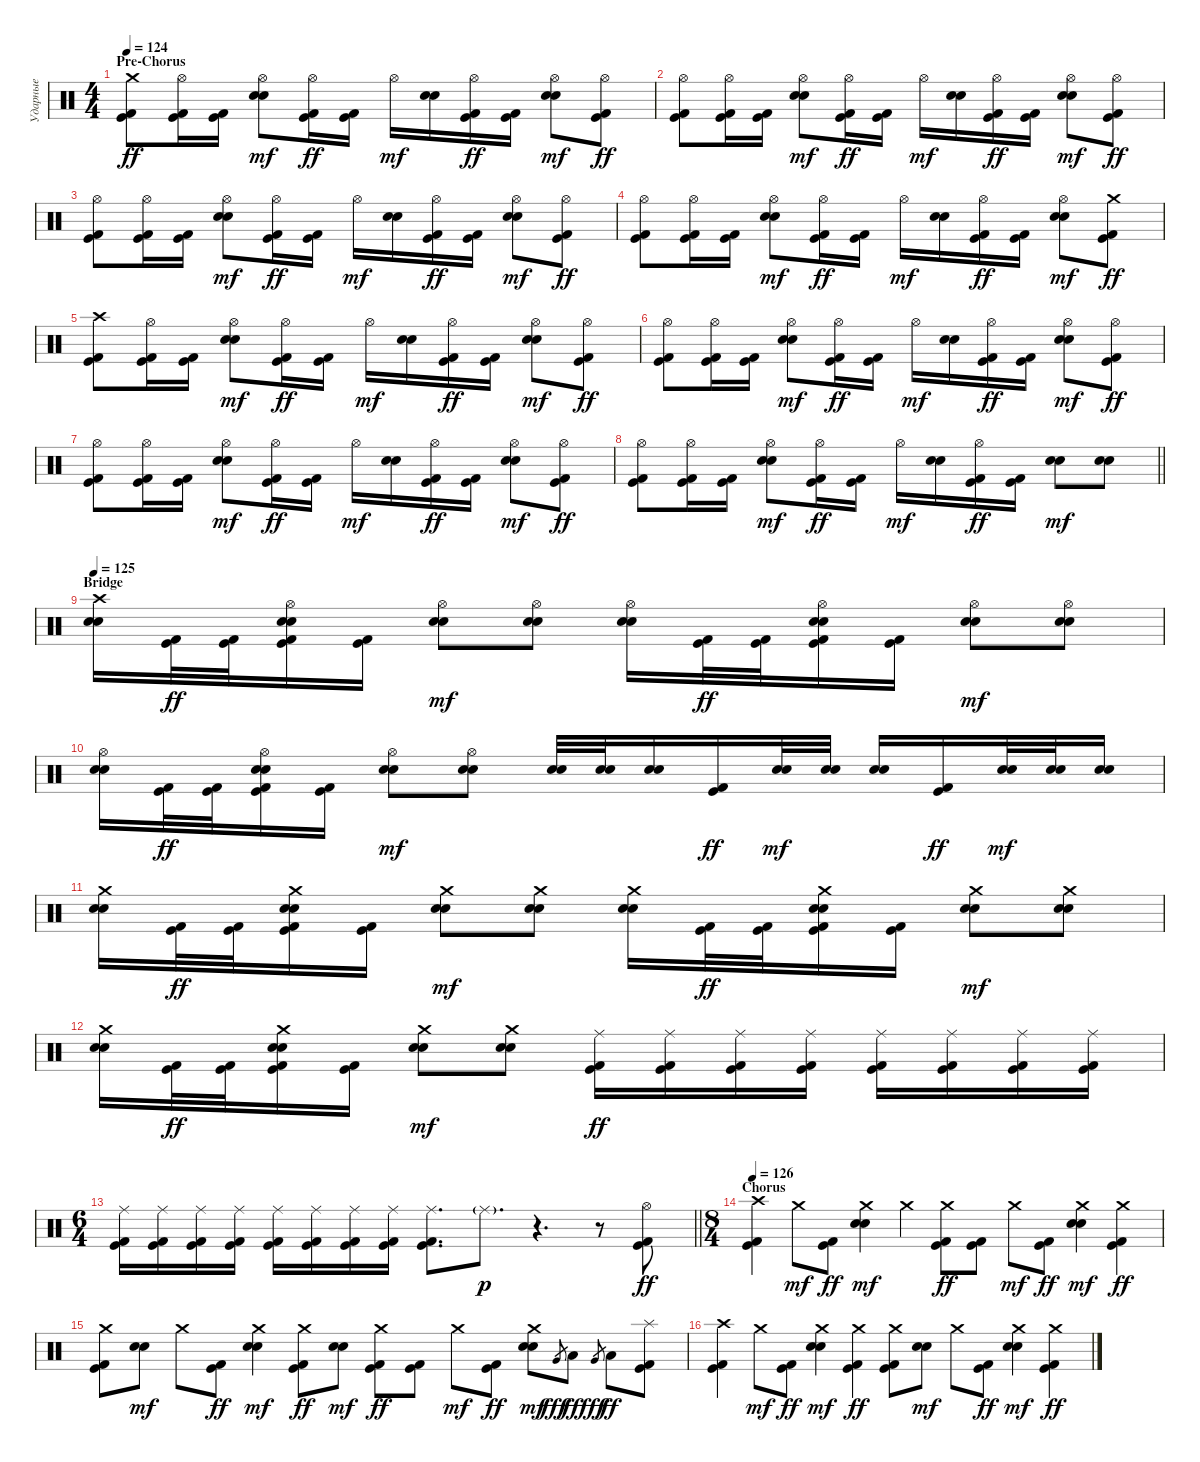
\track ("Ударные" "Ударные") {instrument percussion}
\staff {score}
\articulation defaults
\ts (4 4)
\section ("" "Pre-Chorus")
\tempo 124
\clef neutral
\ks c
("Crash medium (hit)" "Kick (hit) 2" "Kick (hit)").8{dy ff} ("Hi-Hat (open)" "Kick (hit) 2" "Kick (hit)").16 ("Kick (hit) 2" "Kick (hit)").16 ("Hi-Hat (open)" "Snare (hit) 2" "Electric Snare (hit)").8{dy mf} ("Hi-Hat (open)" "Kick (hit) 2" "Kick (hit)").16{dy ff} ("Kick (hit) 2" "Kick (hit)").16 "Hi-Hat (open)".16{dy mf} ("Snare (hit) 2" "Electric Snare (hit)").16 ("Hi-Hat (open)" "Kick (hit) 2" "Kick (hit)").16{dy ff} ("Kick (hit) 2" "Kick (hit)").16 ("Hi-Hat (open)" "Snare (hit) 2" "Electric Snare (hit)").8{dy mf} ("Hi-Hat (open)" "Kick (hit) 2" "Kick (hit)").8{dy ff} |
("Hi-Hat (open)" "Kick (hit) 2" "Kick (hit)").8 ("Hi-Hat (open)" "Kick (hit) 2" "Kick (hit)").16 ("Kick (hit) 2" "Kick (hit)").16 ("Hi-Hat (open)" "Snare (hit) 2" "Electric Snare (hit)").8{dy mf} ("Hi-Hat (open)" "Kick (hit) 2" "Kick (hit)").16{dy ff} ("Kick (hit) 2" "Kick (hit)").16 "Hi-Hat (open)".16{dy mf} ("Snare (hit) 2" "Electric Snare (hit)").16 ("Hi-Hat (open)" "Kick (hit) 2" "Kick (hit)").16{dy ff} ("Kick (hit) 2" "Kick (hit)").16 ("Hi-Hat (open)" "Snare (hit) 2" "Electric Snare (hit)").8{dy mf} ("Hi-Hat (open)" "Kick (hit) 2" "Kick (hit)").8{dy ff} |
("Hi-Hat (open)" "Kick (hit) 2" "Kick (hit)").8 ("Hi-Hat (open)" "Kick (hit) 2" "Kick (hit)").16 ("Kick (hit) 2" "Kick (hit)").16 ("Hi-Hat (open)" "Snare (hit) 2" "Electric Snare (hit)").8{dy mf} ("Hi-Hat (open)" "Kick (hit) 2" "Kick (hit)").16{dy ff} ("Kick (hit) 2" "Kick (hit)").16 "Hi-Hat (open)".16{dy mf} ("Snare (hit) 2" "Electric Snare (hit)").16 ("Hi-Hat (open)" "Kick (hit) 2" "Kick (hit)").16{dy ff} ("Kick (hit) 2" "Kick (hit)").16 ("Hi-Hat (open)" "Snare (hit) 2" "Electric Snare (hit)").8{dy mf} ("Hi-Hat (open)" "Kick (hit) 2" "Kick (hit)").8{dy ff} |
("Hi-Hat (open)" "Kick (hit) 2" "Kick (hit)").8 ("Hi-Hat (open)" "Kick (hit) 2" "Kick (hit)").16 ("Kick (hit) 2" "Kick (hit)").16 ("Hi-Hat (open)" "Snare (hit) 2" "Electric Snare (hit)").8{dy mf} ("Hi-Hat (open)" "Kick (hit) 2" "Kick (hit)").16{dy ff} ("Kick (hit) 2" "Kick (hit)").16 "Hi-Hat (open)".16{dy mf} ("Snare (hit) 2" "Electric Snare (hit)").16 ("Hi-Hat (open)" "Kick (hit) 2" "Kick (hit)").16{dy ff} ("Kick (hit) 2" "Kick (hit)").16 ("Hi-Hat (open)" "Snare (hit) 2" "Electric Snare (hit)").8{dy mf} ("Crash medium (hit)" "Kick (hit) 2" "Kick (hit)").8{dy ff} |
("Crash high (hit)" "Kick (hit) 2" "Kick (hit)").8 ("Hi-Hat (open)" "Kick (hit) 2" "Kick (hit)").16 ("Kick (hit) 2" "Kick (hit)").16 ("Hi-Hat (open)" "Snare (hit) 2" "Electric Snare (hit)").8{dy mf} ("Hi-Hat (open)" "Kick (hit) 2" "Kick (hit)").16{dy ff} ("Kick (hit) 2" "Kick (hit)").16 "Hi-Hat (open)".16{dy mf} ("Snare (hit) 2" "Electric Snare (hit)").16 ("Hi-Hat (open)" "Kick (hit) 2" "Kick (hit)").16{dy ff} ("Kick (hit) 2" "Kick (hit)").16 ("Hi-Hat (open)" "Snare (hit) 2" "Electric Snare (hit)").8{dy mf} ("Hi-Hat (open)" "Kick (hit) 2" "Kick (hit)").8{dy ff} |
("Hi-Hat (open)" "Kick (hit) 2" "Kick (hit)").8 ("Hi-Hat (open)" "Kick (hit) 2" "Kick (hit)").16 ("Kick (hit) 2" "Kick (hit)").16 ("Hi-Hat (open)" "Snare (hit) 2" "Electric Snare (hit)").8{dy mf} ("Hi-Hat (open)" "Kick (hit) 2" "Kick (hit)").16{dy ff} ("Kick (hit) 2" "Kick (hit)").16 "Hi-Hat (open)".16{dy mf} ("Snare (hit) 2" "Electric Snare (hit)").16 ("Hi-Hat (open)" "Kick (hit) 2" "Kick (hit)").16{dy ff} ("Kick (hit) 2" "Kick (hit)").16 ("Hi-Hat (open)" "Snare (hit) 2" "Electric Snare (hit)").8{dy mf} ("Hi-Hat (open)" "Kick (hit) 2" "Kick (hit)").8{dy ff} |
("Hi-Hat (open)" "Kick (hit) 2" "Kick (hit)").8 ("Hi-Hat (open)" "Kick (hit) 2" "Kick (hit)").16 ("Kick (hit) 2" "Kick (hit)").16 ("Hi-Hat (open)" "Snare (hit) 2" "Electric Snare (hit)").8{dy mf} ("Hi-Hat (open)" "Kick (hit) 2" "Kick (hit)").16{dy ff} ("Kick (hit) 2" "Kick (hit)").16 "Hi-Hat (open)".16{dy mf} ("Snare (hit) 2" "Electric Snare (hit)").16 ("Hi-Hat (open)" "Kick (hit) 2" "Kick (hit)").16{dy ff} ("Kick (hit) 2" "Kick (hit)").16 ("Hi-Hat (open)" "Snare (hit) 2" "Electric Snare (hit)").8{dy mf} ("Hi-Hat (open)" "Kick (hit) 2" "Kick (hit)").8{dy ff} |
\barLineRight lightlight
("Hi-Hat (open)" "Kick (hit) 2" "Kick (hit)").8 ("Hi-Hat (open)" "Kick (hit) 2" "Kick (hit)").16 ("Kick (hit) 2" "Kick (hit)").16 ("Hi-Hat (open)" "Snare (hit) 2" "Electric Snare (hit)").8{dy mf} ("Hi-Hat (open)" "Kick (hit) 2" "Kick (hit)").16{dy ff} ("Kick (hit) 2" "Kick (hit)").16 "Hi-Hat (open)".16{dy mf} ("Snare (hit) 2" "Electric Snare (hit)").16 ("Hi-Hat (open)" "Kick (hit) 2" "Kick (hit)").16{dy ff} ("Kick (hit) 2" "Kick (hit)").16 ("Snare (hit) 2" "Electric Snare (hit)").8{dy mf} ("Snare (hit) 2" "Electric Snare (hit)").8 |
\section ("" "Bridge")
\tempo 125
("Crash high (hit)" "Snare (hit) 2" "Electric Snare (hit)").16 ("Kick (hit) 2" "Kick (hit)").32{dy ff} ("Kick (hit) 2" "Kick (hit)").32 ("Hi-Hat (open)" "Snare (hit) 2" "Electric Snare (hit)" "Kick (hit) 2" "Kick (hit)").16 ("Kick (hit) 2" "Kick (hit)").16 ("Hi-Hat (open)" "Snare (hit) 2" "Electric Snare (hit)").8{dy mf} ("Hi-Hat (open)" "Snare (hit) 2" "Electric Snare (hit)").8 ("Hi-Hat (open)" "Snare (hit) 2" "Electric Snare (hit)").16 ("Kick (hit) 2" "Kick (hit)").32{dy ff} ("Kick (hit) 2" "Kick (hit)").32 ("Hi-Hat (open)" "Snare (hit) 2" "Electric Snare (hit)" "Kick (hit) 2" "Kick (hit)").16 ("Kick (hit) 2" "Kick (hit)").16 ("Hi-Hat (open)" "Snare (hit) 2" "Electric Snare (hit)").8{dy mf} ("Hi-Hat (open)" "Snare (hit) 2" "Electric Snare (hit)").8 |
("Hi-Hat (open)" "Snare (hit) 2" "Electric Snare (hit)").16 ("Kick (hit) 2" "Kick (hit)").32{dy ff} ("Kick (hit) 2" "Kick (hit)").32 ("Hi-Hat (open)" "Snare (hit) 2" "Electric Snare (hit)" "Kick (hit) 2" "Kick (hit)").16 ("Kick (hit) 2" "Kick (hit)").16 ("Hi-Hat (open)" "Snare (hit) 2" "Electric Snare (hit)").8{dy mf} ("Hi-Hat (open)" "Snare (hit) 2" "Electric Snare (hit)").8 ("Snare (hit) 2" "Electric Snare (hit)").32 ("Snare (hit) 2" "Electric Snare (hit)").32 ("Snare (hit) 2" "Electric Snare (hit)").16 ("Kick (hit) 2" "Kick (hit)").16{dy ff} ("Snare (hit) 2" "Electric Snare (hit)").32{dy mf} ("Snare (hit) 2" "Electric Snare (hit)").32 ("Snare (hit) 2" "Electric Snare (hit)").16 ("Kick (hit) 2" "Kick (hit)").16{dy ff} ("Snare (hit) 2" "Electric Snare (hit)").32{dy mf} ("Snare (hit) 2" "Electric Snare (hit)").32 ("Snare (hit) 2" "Electric Snare (hit)").16 |
("Crash medium (hit)" "Snare (hit) 2" "Electric Snare (hit)").16 ("Kick (hit) 2" "Kick (hit)").32{dy ff} ("Kick (hit) 2" "Kick (hit)").32 ("Crash medium (hit)" "Snare (hit) 2" "Electric Snare (hit)" "Kick (hit) 2" "Kick (hit)").16 ("Kick (hit) 2" "Kick (hit)").16 ("Crash medium (hit)" "Snare (hit) 2" "Electric Snare (hit)").8{dy mf} ("Crash medium (hit)" "Snare (hit) 2" "Electric Snare (hit)").8 ("Crash medium (hit)" "Snare (hit) 2" "Electric Snare (hit)").16 ("Kick (hit) 2" "Kick (hit)").32{dy ff} ("Kick (hit) 2" "Kick (hit)").32 ("Crash medium (hit)" "Snare (hit) 2" "Electric Snare (hit)" "Kick (hit) 2" "Kick (hit)").16 ("Kick (hit) 2" "Kick (hit)").16 ("Crash medium (hit)" "Snare (hit) 2" "Electric Snare (hit)").8{dy mf} ("Crash medium (hit)" "Snare (hit) 2" "Electric Snare (hit)").8 |
("Crash medium (hit)" "Snare (hit) 2" "Electric Snare (hit)").16 ("Kick (hit) 2" "Kick (hit)").32{dy ff} ("Kick (hit) 2" "Kick (hit)").32 ("Crash medium (hit)" "Snare (hit) 2" "Electric Snare (hit)" "Kick (hit) 2" "Kick (hit)").16 ("Kick (hit) 2" "Kick (hit)").16 ("Crash medium (hit)" "Snare (hit) 2" "Electric Snare (hit)").8{dy mf} ("Crash medium (hit)" "Snare (hit) 2" "Electric Snare (hit)").8 ("Ride (middle)" "Kick (hit) 2" "Kick (hit)").16{dy ff} ("Ride (middle)" "Kick (hit) 2" "Kick (hit)").16 ("Ride (middle)" "Kick (hit) 2" "Kick (hit)").16 ("Ride (middle)" "Kick (hit) 2" "Kick (hit)").16 ("Ride (middle)" "Kick (hit) 2" "Kick (hit)").16 ("Ride (middle)" "Kick (hit) 2" "Kick (hit)").16 ("Ride (middle)" "Kick (hit) 2" "Kick (hit)").16 ("Ride (middle)" "Kick (hit) 2" "Kick (hit)").16 |
\ts (6 4)
\barLineRight lightlight
("Ride (middle)" "Kick (hit) 2" "Kick (hit)").16 ("Ride (middle)" "Kick (hit) 2" "Kick (hit)").16 ("Ride (middle)" "Kick (hit) 2" "Kick (hit)").16 ("Ride (middle)" "Kick (hit) 2" "Kick (hit)").16 ("Ride (middle)" "Kick (hit) 2" "Kick (hit)").16 ("Ride (middle)" "Kick (hit) 2" "Kick (hit)").16 ("Ride (middle)" "Kick (hit) 2" "Kick (hit)").16 ("Ride (middle)" "Kick (hit) 2" "Kick (hit)").16 ("Ride (middle)" "Kick (hit) 2" "Kick (hit)").8{d} "Ride (middle)"{g}.8{d dy p} r.4{d} r.8 ("Hi-Hat (open)" "Kick (hit) 2" "Kick (hit)").8{dy ff} |
\ts (8 4)
\section ("" "Chorus")
\tempo 126
("Crash high (hit)" "Kick (hit) 2" "Kick (hit)").4 "Crash medium (hit)".8{dy mf} ("Kick (hit) 2" "Kick (hit)").8{dy ff} ("Crash medium (hit)" "Snare (hit) 2" "Electric Snare (hit)").4{dy mf} "Crash medium (hit)".4 ("Crash medium (hit)" "Kick (hit) 2" "Kick (hit)").8{dy ff} ("Kick (hit) 2" "Kick (hit)").8 "Crash medium (hit)".8{dy mf} ("Kick (hit) 2" "Kick (hit)").8{dy ff} ("Crash medium (hit)" "Snare (hit) 2" "Electric Snare (hit)").4{dy mf} ("Crash medium (hit)" "Kick (hit) 2" "Kick (hit)").4{dy ff} |
("Crash medium (hit)" "Kick (hit) 2" "Kick (hit)").8 ("Snare (hit) 2" "Electric Snare (hit)").8{dy mf} "Crash medium (hit)".8 ("Kick (hit) 2" "Kick (hit)").8{dy ff} ("Crash medium (hit)" "Snare (hit) 2" "Electric Snare (hit)").4{dy mf} ("Crash medium (hit)" "Kick (hit) 2" "Kick (hit)").8{dy ff} ("Snare (hit) 2" "Electric Snare (hit)").8{dy mf} ("Crash medium (hit)" "Kick (hit) 2" "Kick (hit)").8{dy ff} ("Kick (hit) 2" "Kick (hit)").8 "Crash medium (hit)".8{dy mf} ("Kick (hit) 2" "Kick (hit)").8{dy ff} ("Crash medium (hit)" "Snare (hit) 2" "Electric Snare (hit)").8{dy mf} "Very Low Tom (hit)".8{gr dy fff} "Low Floor Tom (hit)".8{dy ff} "Very Low Tom (hit)".8{gr dy fff} "Low Floor Tom (hit)".8{dy ff} ("Splash (hit)" "Kick (hit) 2" "Kick (hit)").8 |
("Crash high (hit)" "Kick (hit) 2" "Kick (hit)").4 "Crash medium (hit)".8{dy mf} ("Kick (hit) 2" "Kick (hit)").8{dy ff} ("Crash medium (hit)" "Snare (hit) 2" "Electric Snare (hit)").4{dy mf} ("Crash medium (hit)" "Kick (hit) 2" "Kick (hit)").4{dy ff} ("Crash medium (hit)" "Kick (hit) 2" "Kick (hit)").8 ("Snare (hit) 2" "Electric Snare (hit)").8{dy mf} "Crash medium (hit)".8 ("Kick (hit) 2" "Kick (hit)").8{dy ff} ("Crash medium (hit)" "Snare (hit) 2" "Electric Snare (hit)").4{dy mf} ("Crash medium (hit)" "Kick (hit) 2" "Kick (hit)").4{dy ff}
